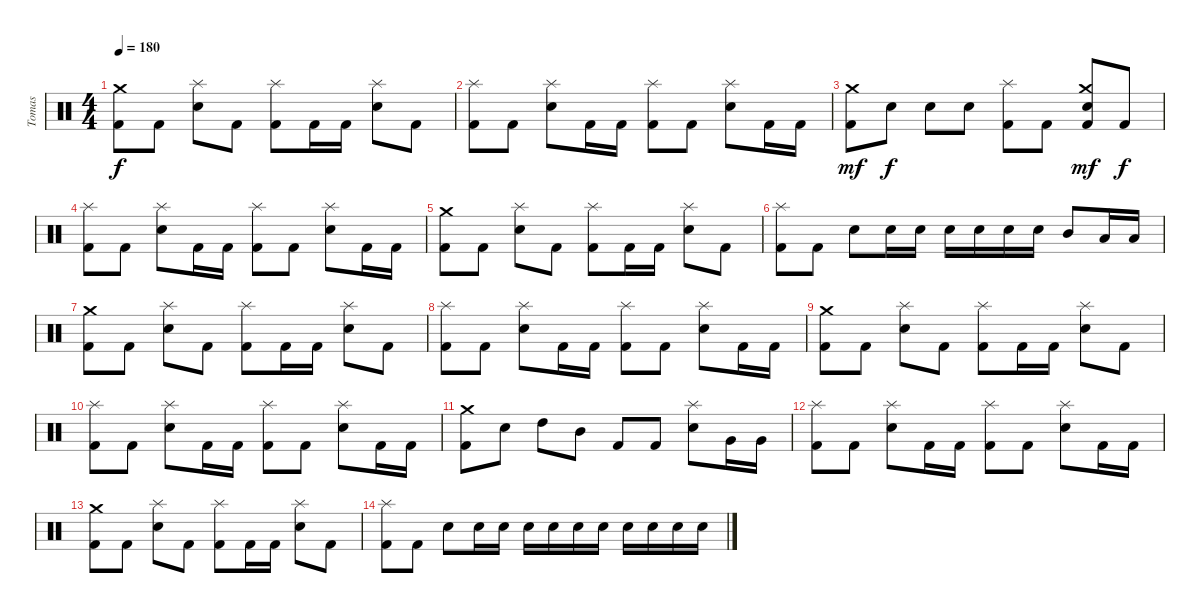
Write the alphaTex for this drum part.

\track ("Tomas" "Tomas") {instrument percussion}
\staff {score}
\articulation defaults
\ts (4 4)
\tempo 180
\clef neutral
\ks c
("Kick (hit) 2" "Crash medium (hit)").8{dy f} "Kick (hit) 2".8 ("Electric Snare (hit)" "Splash (hit)").8 "Kick (hit) 2".8 ("Kick (hit) 2" "Splash (hit)").8 "Kick (hit) 2".16 "Kick (hit) 2".16 ("Electric Snare (hit)" "Splash (hit)").8 "Kick (hit) 2".8 |
("Kick (hit) 2" "Splash (hit)").8 "Kick (hit) 2".8 ("Electric Snare (hit)" "Splash (hit)").8 "Kick (hit) 2".16 "Kick (hit) 2".16 ("Kick (hit) 2" "Splash (hit)").8 "Kick (hit) 2".8 ("Electric Snare (hit)" "Splash (hit)").8 "Kick (hit) 2".16 "Kick (hit) 2".16 |
("Kick (hit) 2" "Crash medium (hit)").8{dy mf} "Electric Snare (hit)".8{dy f} "Electric Snare (hit)".8 "Electric Snare (hit)".8 ("Kick (hit) 2" "Splash (hit)").8 "Kick (hit) 2".8 ("Kick (hit) 2" "Electric Snare (hit)" "Crash medium (hit)").8{dy mf} "Kick (hit) 2".8{dy f} |
("Kick (hit) 2" "Splash (hit)").8 "Kick (hit) 2".8 ("Electric Snare (hit)" "Splash (hit)").8 "Kick (hit) 2".16 "Kick (hit) 2".16 ("Kick (hit) 2" "Splash (hit)").8 "Kick (hit) 2".8 ("Electric Snare (hit)" "Splash (hit)").8 "Kick (hit) 2".16 "Kick (hit) 2".16 |
("Kick (hit) 2" "Crash medium (hit)").8 "Kick (hit) 2".8 ("Electric Snare (hit)" "Splash (hit)").8 "Kick (hit) 2".8 ("Kick (hit) 2" "Splash (hit)").8 "Kick (hit) 2".16 "Kick (hit) 2".16 ("Electric Snare (hit)" "Splash (hit)").8 "Kick (hit) 2".8 |
("Kick (hit) 2" "Splash (hit)").8 "Kick (hit) 2".8 "Electric Snare (hit)".8 "Electric Snare (hit)".16 "Electric Snare (hit)".16 "Electric Snare (hit)".16 "Electric Snare (hit)".16 "Electric Snare (hit)".16 "Electric Snare (hit)".16 "Mid Tom (hit)".8 "Low Tom (hit)".16 "Low Tom (hit)".16 |
("Kick (hit) 2" "Crash medium (hit)").8 "Kick (hit) 2".8 ("Electric Snare (hit)" "Splash (hit)").8 "Kick (hit) 2".8 ("Kick (hit) 2" "Splash (hit)").8 "Kick (hit) 2".16 "Kick (hit) 2".16 ("Electric Snare (hit)" "Splash (hit)").8 "Kick (hit) 2".8 |
("Kick (hit) 2" "Splash (hit)").8 "Kick (hit) 2".8 ("Electric Snare (hit)" "Splash (hit)").8 "Kick (hit) 2".16 "Kick (hit) 2".16 ("Kick (hit) 2" "Splash (hit)").8 "Kick (hit) 2".8 ("Electric Snare (hit)" "Splash (hit)").8 "Kick (hit) 2".16 "Kick (hit) 2".16 |
("Kick (hit) 2" "Crash medium (hit)").8 "Kick (hit) 2".8 ("Electric Snare (hit)" "Splash (hit)").8 "Kick (hit) 2".8 ("Kick (hit) 2" "Splash (hit)").8 "Kick (hit) 2".16 "Kick (hit) 2".16 ("Electric Snare (hit)" "Splash (hit)").8 "Kick (hit) 2".8 |
("Kick (hit) 2" "Splash (hit)").8 "Kick (hit) 2".8 ("Electric Snare (hit)" "Splash (hit)").8 "Kick (hit) 2".16 "Kick (hit) 2".16 ("Kick (hit) 2" "Splash (hit)").8 "Kick (hit) 2".8 ("Electric Snare (hit)" "Splash (hit)").8 "Kick (hit) 2".16 "Kick (hit) 2".16 |
("Kick (hit) 2" "Crash medium (hit)").8 "Electric Snare (hit)".8 "High Tom (hit)".8 "Mid Tom (hit)".8 "Kick (hit) 2".8 "Kick (hit) 2".8 ("Electric Snare (hit)" "Splash (hit)").8 "Very Low Tom (hit)".16 "Very Low Tom (hit)".16 |
("Kick (hit) 2" "Splash (hit)").8 "Kick (hit) 2".8 ("Electric Snare (hit)" "Splash (hit)").8 "Kick (hit) 2".16 "Kick (hit) 2".16 ("Kick (hit) 2" "Splash (hit)").8 "Kick (hit) 2".8 ("Electric Snare (hit)" "Splash (hit)").8 "Kick (hit) 2".16 "Kick (hit) 2".16 |
("Kick (hit) 2" "Crash medium (hit)").8 "Kick (hit) 2".8 ("Electric Snare (hit)" "Splash (hit)").8 "Kick (hit) 2".8 ("Kick (hit) 2" "Splash (hit)").8 "Kick (hit) 2".16 "Kick (hit) 2".16 ("Electric Snare (hit)" "Splash (hit)").8 "Kick (hit) 2".8 |
("Kick (hit) 2" "Splash (hit)").8 "Kick (hit) 2".8 "Electric Snare (hit)".8 "Electric Snare (hit)".16 "Electric Snare (hit)".16 "Electric Snare (hit)".16 "Electric Snare (hit)".16 "Electric Snare (hit)".16 "Electric Snare (hit)".16 "Electric Snare (hit)".16 "Electric Snare (hit)".16 "Electric Snare (hit)".16 "Electric Snare (hit)".16
